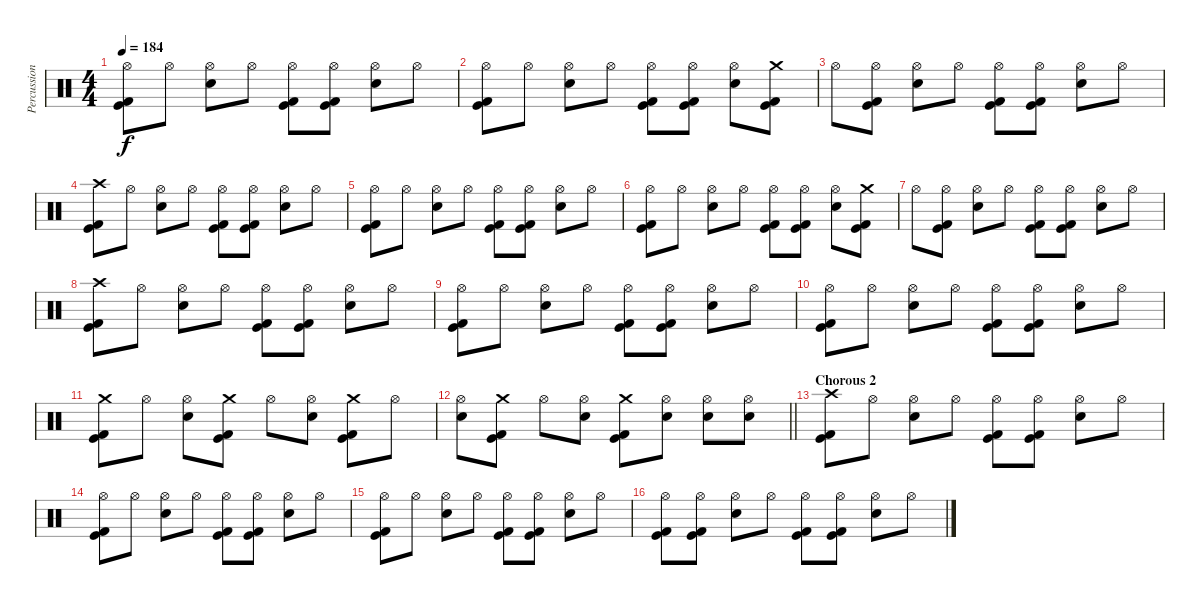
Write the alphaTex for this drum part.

\track ("Percussion" "Percussion") {instrument percussion}
\staff {score}
\articulation defaults
\ts (4 4)
\tempo 184
\clef neutral
\ks c
("Hi-Hat (open)" "Kick (hit)" "Kick (hit) 2").8{dy f} "Hi-Hat (open)".8 ("Hi-Hat (open)" "Electric Snare (hit)").8 "Hi-Hat (open)".8 ("Hi-Hat (open)" "Kick (hit)" "Kick (hit) 2").8 ("Hi-Hat (open)" "Kick (hit)" "Kick (hit) 2").8 ("Hi-Hat (open)" "Electric Snare (hit)").8 "Hi-Hat (open)".8 |
("Hi-Hat (open)" "Kick (hit)" "Kick (hit) 2").8 "Hi-Hat (open)".8 ("Hi-Hat (open)" "Electric Snare (hit)").8 "Hi-Hat (open)".8 ("Hi-Hat (open)" "Kick (hit)" "Kick (hit) 2").8 ("Hi-Hat (open)" "Kick (hit)" "Kick (hit) 2").8 ("Hi-Hat (open)" "Electric Snare (hit)").8 ("Crash medium (hit)" "Kick (hit)" "Kick (hit) 2").8 |
"Hi-Hat (open)".8 ("Hi-Hat (open)" "Kick (hit)" "Kick (hit) 2").8 ("Hi-Hat (open)" "Electric Snare (hit)").8 "Hi-Hat (open)".8 ("Hi-Hat (open)" "Kick (hit)" "Kick (hit) 2").8 ("Hi-Hat (open)" "Kick (hit)" "Kick (hit) 2").8 ("Hi-Hat (open)" "Electric Snare (hit)").8 "Hi-Hat (open)".8 |
("Crash high (hit)" "Kick (hit)" "Kick (hit) 2").8 "Hi-Hat (open)".8 ("Hi-Hat (open)" "Electric Snare (hit)").8 "Hi-Hat (open)".8 ("Hi-Hat (open)" "Kick (hit)" "Kick (hit) 2").8 ("Hi-Hat (open)" "Kick (hit)" "Kick (hit) 2").8 ("Hi-Hat (open)" "Electric Snare (hit)").8 "Hi-Hat (open)".8 |
("Hi-Hat (open)" "Kick (hit)" "Kick (hit) 2").8 "Hi-Hat (open)".8 ("Hi-Hat (open)" "Electric Snare (hit)").8 "Hi-Hat (open)".8 ("Hi-Hat (open)" "Kick (hit)" "Kick (hit) 2").8 ("Hi-Hat (open)" "Kick (hit)" "Kick (hit) 2").8 ("Hi-Hat (open)" "Electric Snare (hit)").8 "Hi-Hat (open)".8 |
("Hi-Hat (open)" "Kick (hit)" "Kick (hit) 2").8 "Hi-Hat (open)".8 ("Hi-Hat (open)" "Electric Snare (hit)").8 "Hi-Hat (open)".8 ("Hi-Hat (open)" "Kick (hit)" "Kick (hit) 2").8 ("Hi-Hat (open)" "Kick (hit)" "Kick (hit) 2").8 ("Hi-Hat (open)" "Electric Snare (hit)").8 ("Crash medium (hit)" "Kick (hit)" "Kick (hit) 2").8 |
"Hi-Hat (open)".8 ("Hi-Hat (open)" "Kick (hit)" "Kick (hit) 2").8 ("Hi-Hat (open)" "Electric Snare (hit)").8 "Hi-Hat (open)".8 ("Hi-Hat (open)" "Kick (hit)" "Kick (hit) 2").8 ("Hi-Hat (open)" "Kick (hit)" "Kick (hit) 2").8 ("Hi-Hat (open)" "Electric Snare (hit)").8 "Hi-Hat (open)".8 |
("Crash high (hit)" "Kick (hit)" "Kick (hit) 2").8 "Hi-Hat (open)".8 ("Hi-Hat (open)" "Electric Snare (hit)").8 "Hi-Hat (open)".8 ("Hi-Hat (open)" "Kick (hit)" "Kick (hit) 2").8 ("Hi-Hat (open)" "Kick (hit)" "Kick (hit) 2").8 ("Hi-Hat (open)" "Electric Snare (hit)").8 "Hi-Hat (open)".8 |
("Hi-Hat (open)" "Kick (hit)" "Kick (hit) 2").8 "Hi-Hat (open)".8 ("Hi-Hat (open)" "Electric Snare (hit)").8 "Hi-Hat (open)".8 ("Hi-Hat (open)" "Kick (hit)" "Kick (hit) 2").8 ("Hi-Hat (open)" "Kick (hit)" "Kick (hit) 2").8 ("Hi-Hat (open)" "Electric Snare (hit)").8 "Hi-Hat (open)".8 |
("Hi-Hat (open)" "Kick (hit)" "Kick (hit) 2").8 "Hi-Hat (open)".8 ("Hi-Hat (open)" "Electric Snare (hit)").8 "Hi-Hat (open)".8 ("Hi-Hat (open)" "Kick (hit)" "Kick (hit) 2").8 ("Hi-Hat (open)" "Kick (hit)" "Kick (hit) 2").8 ("Hi-Hat (open)" "Electric Snare (hit)").8 "Hi-Hat (open)".8 |
("Crash medium (hit)" "Kick (hit)" "Kick (hit) 2").8 "Hi-Hat (open)".8 ("Hi-Hat (open)" "Electric Snare (hit)").8 ("Crash medium (hit)" "Kick (hit)" "Kick (hit) 2").8 "Hi-Hat (open)".8 ("Hi-Hat (open)" "Electric Snare (hit)").8 ("Crash medium (hit)" "Kick (hit)" "Kick (hit) 2").8 "Hi-Hat (open)".8 |
\barLineRight lightlight
("Hi-Hat (open)" "Electric Snare (hit)").8 ("Crash medium (hit)" "Kick (hit)" "Kick (hit) 2").8 "Hi-Hat (open)".8 ("Hi-Hat (open)" "Electric Snare (hit)").8 ("Crash medium (hit)" "Kick (hit)" "Kick (hit) 2").8 ("Hi-Hat (open)" "Electric Snare (hit)").8 ("Hi-Hat (open)" "Electric Snare (hit)").8 ("Hi-Hat (open)" "Electric Snare (hit)").8 |
\section ("" "Chorous 2")
("Crash high (hit)" "Kick (hit)" "Kick (hit) 2").8 "Hi-Hat (open)".8 ("Hi-Hat (open)" "Electric Snare (hit)").8 "Hi-Hat (open)".8 ("Hi-Hat (open)" "Kick (hit)" "Kick (hit) 2").8 ("Hi-Hat (open)" "Kick (hit)" "Kick (hit) 2").8 ("Hi-Hat (open)" "Electric Snare (hit)").8 "Hi-Hat (open)".8 |
("Hi-Hat (open)" "Kick (hit)" "Kick (hit) 2").8 "Hi-Hat (open)".8 ("Hi-Hat (open)" "Electric Snare (hit)").8 "Hi-Hat (open)".8 ("Hi-Hat (open)" "Kick (hit)" "Kick (hit) 2").8 ("Hi-Hat (open)" "Kick (hit)" "Kick (hit) 2").8 ("Hi-Hat (open)" "Electric Snare (hit)").8 "Hi-Hat (open)".8 |
("Hi-Hat (open)" "Kick (hit)" "Kick (hit) 2").8 "Hi-Hat (open)".8 ("Hi-Hat (open)" "Electric Snare (hit)").8 "Hi-Hat (open)".8 ("Hi-Hat (open)" "Kick (hit)" "Kick (hit) 2").8 ("Hi-Hat (open)" "Kick (hit)" "Kick (hit) 2").8 ("Hi-Hat (open)" "Electric Snare (hit)").8 "Hi-Hat (open)".8 |
("Hi-Hat (open)" "Kick (hit)" "Kick (hit) 2").8 ("Hi-Hat (open)" "Kick (hit)" "Kick (hit) 2").8 ("Hi-Hat (open)" "Electric Snare (hit)").8 "Hi-Hat (open)".8 ("Hi-Hat (open)" "Kick (hit)" "Kick (hit) 2").8 ("Hi-Hat (open)" "Kick (hit)" "Kick (hit) 2").8 ("Hi-Hat (open)" "Electric Snare (hit)").8 "Hi-Hat (open)".8
